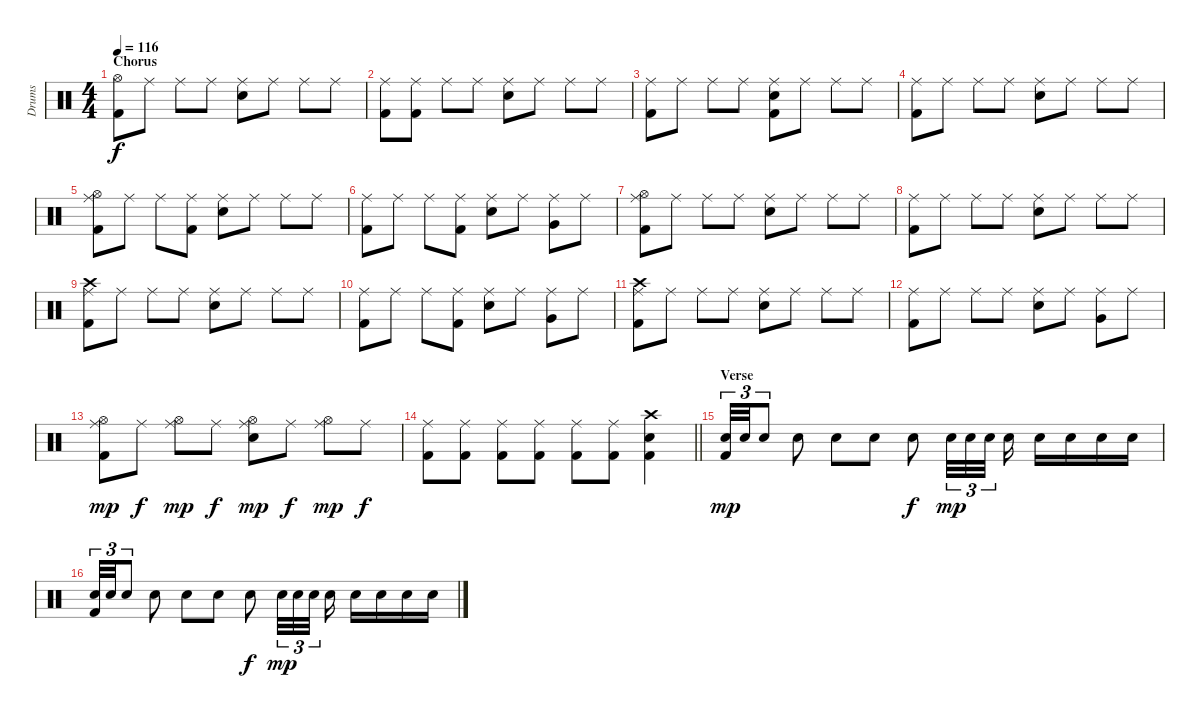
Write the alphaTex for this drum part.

\track ("Drums" "Drums") {instrument percussion}
\staff {score}
\articulation defaults
\ts (4 4)
\section ("" "Chorus")
\tempo 116
\clef neutral
\ks c
("Kick (hit) 2" "Hi-Hat (open)").8{dy f} "Ride (middle)".8 "Ride (middle)".8 "Ride (middle)".8 ("Snare (hit) 2" "Ride (middle)").8 "Ride (middle)".8 "Ride (middle)".8 "Ride (middle)".8 |
("Kick (hit) 2" "Ride (middle)").8 ("Kick (hit) 2" "Ride (middle)").8 "Ride (middle)".8 "Ride (middle)".8 ("Snare (hit) 2" "Ride (middle)").8 "Ride (middle)".8 "Ride (middle)".8 "Ride (middle)".8 |
("Kick (hit) 2" "Ride (middle)").8 "Ride (middle)".8 "Ride (middle)".8 "Ride (middle)".8 ("Kick (hit) 2" "Snare (hit) 2" "Ride (middle)").8 "Ride (middle)".8 "Ride (middle)".8 "Ride (middle)".8 |
("Kick (hit) 2" "Ride (middle)").8 "Ride (middle)".8 "Ride (middle)".8 "Ride (middle)".8 ("Snare (hit) 2" "Ride (middle)").8 "Ride (middle)".8 "Ride (middle)".8 "Ride (middle)".8 |
("Kick (hit) 2" "Hi-Hat (open)" "Ride (middle)").8 "Ride (middle)".8 "Ride (middle)".8 ("Kick (hit) 2" "Ride (middle)").8 ("Snare (hit) 2" "Ride (middle)").8 "Ride (middle)".8 "Ride (middle)".8 "Ride (middle)".8 |
("Kick (hit) 2" "Ride (middle)").8 "Ride (middle)".8 "Ride (middle)".8 ("Kick (hit) 2" "Ride (middle)").8 ("Snare (hit) 2" "Ride (middle)").8 "Ride (middle)".8 ("Very Low Tom (hit)" "Ride (middle)").8 "Ride (middle)".8 |
("Kick (hit) 2" "Hi-Hat (open)" "Ride (middle)").8 "Ride (middle)".8 "Ride (middle)".8 "Ride (middle)".8 ("Snare (hit) 2" "Ride (middle)").8 "Ride (middle)".8 "Ride (middle)".8 "Ride (middle)".8 |
("Kick (hit) 2" "Ride (middle)").8 "Ride (middle)".8 "Ride (middle)".8 "Ride (middle)".8 ("Snare (hit) 2" "Ride (middle)").8 "Ride (middle)".8 "Ride (middle)".8 "Ride (middle)".8 |
("Kick (hit) 2" "Crash high (hit)" "Ride (middle)").8 "Ride (middle)".8 "Ride (middle)".8 "Ride (middle)".8 ("Snare (hit) 2" "Ride (middle)").8 "Ride (middle)".8 "Ride (middle)".8 "Ride (middle)".8 |
("Kick (hit) 2" "Ride (middle)").8 "Ride (middle)".8 "Ride (middle)".8 ("Kick (hit) 2" "Ride (middle)").8 ("Snare (hit) 2" "Ride (middle)").8 "Ride (middle)".8 ("Very Low Tom (hit)" "Ride (middle)").8 "Ride (middle)".8 |
("Kick (hit) 2" "Crash high (hit)" "Ride (middle)").8 "Ride (middle)".8 "Ride (middle)".8 "Ride (middle)".8 ("Snare (hit) 2" "Ride (middle)").8 "Ride (middle)".8 "Ride (middle)".8 "Ride (middle)".8 |
("Kick (hit) 2" "Ride (middle)").8 "Ride (middle)".8 "Ride (middle)".8 "Ride (middle)".8 ("Snare (hit) 2" "Ride (middle)").8 "Ride (middle)".8 ("Very Low Tom (hit)" "Ride (middle)").8 "Ride (middle)".8 |
("Kick (hit) 2" "Hi-Hat (open)" "Ride (middle)").8{dy mp} "Ride (middle)".8{dy f} ("Hi-Hat (open)" "Ride (middle)").8{dy mp} "Ride (middle)".8{dy f} ("Snare (hit) 2" "Hi-Hat (open)" "Ride (middle)").8{dy mp} "Ride (middle)".8{dy f} ("Hi-Hat (open)" "Ride (middle)").8{dy mp} "Ride (middle)".8{dy f} |
\barLineRight lightlight
("Kick (hit) 2" "Ride (middle)").8 ("Kick (hit) 2" "Ride (middle)").8 ("Kick (hit) 2" "Ride (middle)").8 ("Kick (hit) 2" "Ride (middle)").8 ("Kick (hit) 2" "Ride (middle)").8 ("Kick (hit) 2" "Ride (middle)").8 ("Kick (hit) 2" "Snare (hit) 2" "Crash high (hit)").4 |
\section ("" "Verse")
("Kick (hit) 2" "Snare (hit) 2").32{tu (3 2) dy mp} "Snare (hit) 2".32{tu (3 2)} "Snare (hit) 2".8{tu (3 2)} "Snare (hit) 2".8 "Snare (hit) 2".8 "Snare (hit) 2".8 "Snare (hit) 2".8{dy f} "Snare (hit) 2".32{tu (3 2) dy mp} "Snare (hit) 2".32{tu (3 2)} "Snare (hit) 2".32{tu (3 2)} "Snare (hit) 2".16 "Snare (hit) 2".16 "Snare (hit) 2".16 "Snare (hit) 2".16 "Snare (hit) 2".16 |
("Kick (hit) 2" "Snare (hit) 2").32{tu (3 2)} "Snare (hit) 2".32{tu (3 2)} "Snare (hit) 2".8{tu (3 2)} "Snare (hit) 2".8 "Snare (hit) 2".8 "Snare (hit) 2".8 "Snare (hit) 2".8{dy f} "Snare (hit) 2".32{tu (3 2) dy mp} "Snare (hit) 2".32{tu (3 2)} "Snare (hit) 2".32{tu (3 2)} "Snare (hit) 2".16 "Snare (hit) 2".16 "Snare (hit) 2".16 "Snare (hit) 2".16 "Snare (hit) 2".16
